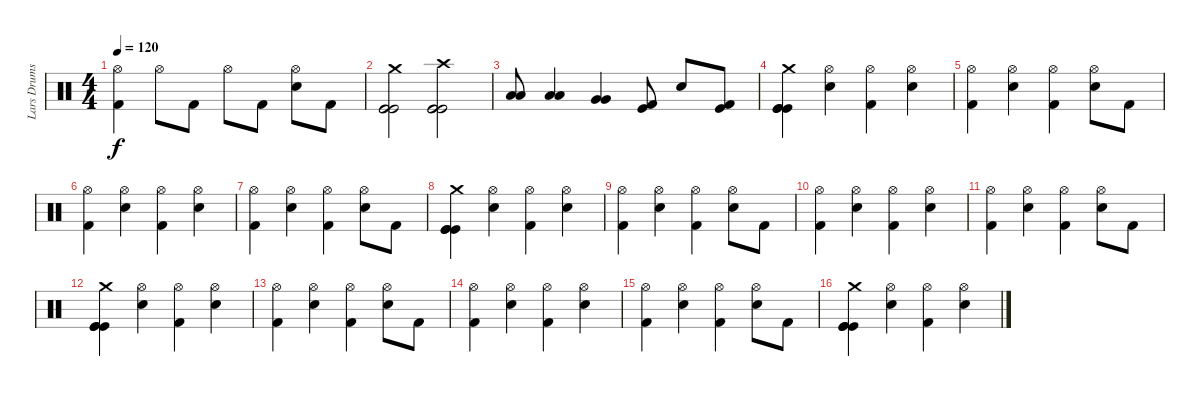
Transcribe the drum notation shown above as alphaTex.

\track ("Lars Drums" "Lars Drums") {instrument percussion}
\staff {score}
\articulation defaults
\ts (4 4)
\tempo 120
\clef neutral
\ks c
("Hi-Hat (open)" "Kick (hit) 2").4{dy f} "Hi-Hat (open)".8 "Kick (hit) 2".8 "Hi-Hat (open)".8 "Kick (hit) 2".8 ("Hi-Hat (open)" "Electric Snare (hit)").8 "Kick (hit) 2".8 |
("Kick (hit)" "Kick (hit)" "Kick (hit)" "Crash medium (hit)").2 ("Kick (hit)" "Kick (hit)" "Kick (hit)" "Crash high (hit)").2 |
("Low Tom (hit)" "Low Tom (hit)").8 ("Low Tom (hit)" "Low Tom (hit)").4 ("Very Low Tom (hit)" "Very Low Tom (hit)").4 ("Kick (hit)" "Kick (hit) 2").8 "Electric Snare (hit)".8 ("Kick (hit)" "Kick (hit) 2").8 |
("Kick (hit)" "Kick (hit)" "Kick (hit)" "Crash medium (hit)").4 ("Hi-Hat (open)" "Electric Snare (hit)").4 ("Hi-Hat (open)" "Kick (hit) 2").4 ("Hi-Hat (open)" "Electric Snare (hit)").4 |
("Hi-Hat (open)" "Kick (hit) 2").4 ("Hi-Hat (open)" "Electric Snare (hit)").4 ("Hi-Hat (open)" "Kick (hit) 2").4 ("Hi-Hat (open)" "Electric Snare (hit)").8 "Kick (hit) 2".8 |
("Hi-Hat (open)" "Kick (hit) 2").4 ("Hi-Hat (open)" "Electric Snare (hit)").4 ("Hi-Hat (open)" "Kick (hit) 2").4 ("Hi-Hat (open)" "Electric Snare (hit)").4 |
("Hi-Hat (open)" "Kick (hit) 2").4 ("Hi-Hat (open)" "Electric Snare (hit)").4 ("Hi-Hat (open)" "Kick (hit) 2").4 ("Hi-Hat (open)" "Electric Snare (hit)").8 "Kick (hit) 2".8 |
("Kick (hit)" "Kick (hit)" "Kick (hit)" "Crash medium (hit)").4 ("Hi-Hat (open)" "Electric Snare (hit)").4 ("Hi-Hat (open)" "Kick (hit) 2").4 ("Hi-Hat (open)" "Electric Snare (hit)").4 |
("Hi-Hat (open)" "Kick (hit) 2").4 ("Hi-Hat (open)" "Electric Snare (hit)").4 ("Hi-Hat (open)" "Kick (hit) 2").4 ("Hi-Hat (open)" "Electric Snare (hit)").8 "Kick (hit) 2".8 |
("Hi-Hat (open)" "Kick (hit) 2").4 ("Hi-Hat (open)" "Electric Snare (hit)").4 ("Hi-Hat (open)" "Kick (hit) 2").4 ("Hi-Hat (open)" "Electric Snare (hit)").4 |
("Hi-Hat (open)" "Kick (hit) 2").4 ("Hi-Hat (open)" "Electric Snare (hit)").4 ("Hi-Hat (open)" "Kick (hit) 2").4 ("Hi-Hat (open)" "Electric Snare (hit)").8 "Kick (hit) 2".8 |
("Kick (hit)" "Kick (hit)" "Kick (hit)" "Crash medium (hit)").4 ("Hi-Hat (open)" "Electric Snare (hit)").4 ("Hi-Hat (open)" "Kick (hit) 2").4 ("Hi-Hat (open)" "Electric Snare (hit)").4 |
("Hi-Hat (open)" "Kick (hit) 2").4 ("Hi-Hat (open)" "Electric Snare (hit)").4 ("Hi-Hat (open)" "Kick (hit) 2").4 ("Hi-Hat (open)" "Electric Snare (hit)").8 "Kick (hit) 2".8 |
("Hi-Hat (open)" "Kick (hit) 2").4 ("Hi-Hat (open)" "Electric Snare (hit)").4 ("Hi-Hat (open)" "Kick (hit) 2").4 ("Hi-Hat (open)" "Electric Snare (hit)").4 |
("Hi-Hat (open)" "Kick (hit) 2").4 ("Hi-Hat (open)" "Electric Snare (hit)").4 ("Hi-Hat (open)" "Kick (hit) 2").4 ("Hi-Hat (open)" "Electric Snare (hit)").8 "Kick (hit) 2".8 |
("Kick (hit)" "Kick (hit)" "Kick (hit)" "Crash medium (hit)").4 ("Hi-Hat (open)" "Electric Snare (hit)").4 ("Hi-Hat (open)" "Kick (hit) 2").4 ("Hi-Hat (open)" "Electric Snare (hit)").4
